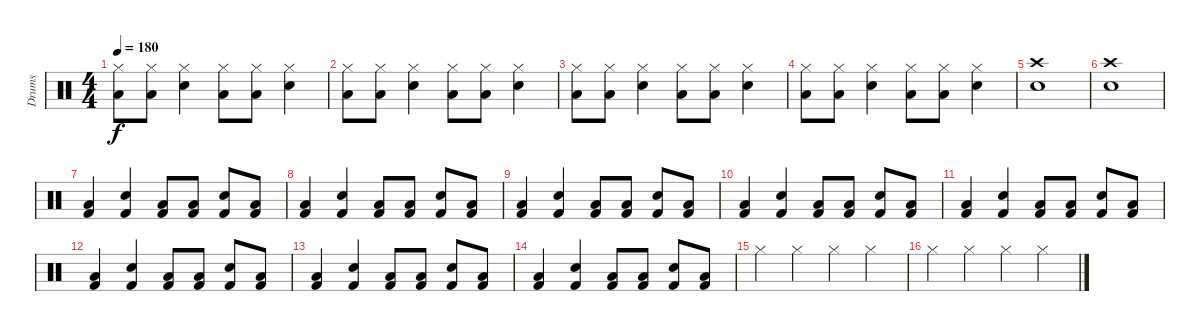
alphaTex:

\track ("Drums" "Drums") {instrument percussion}
\staff {score}
\articulation defaults
\ts (4 4)
\tempo 180
\clef neutral
\ks c
("Hi-Hat (closed)" "Low Tom (hit)").8{dy f} ("Hi-Hat (closed)" "Low Tom (hit)").8 ("Hi-Hat (closed)" "Electric Snare (hit)").4 ("Hi-Hat (closed)" "Low Tom (hit)").8 ("Hi-Hat (closed)" "Low Tom (hit)").8 ("Hi-Hat (closed)" "Electric Snare (hit)").4 |
("Hi-Hat (closed)" "Low Tom (hit)").8 ("Hi-Hat (closed)" "Low Tom (hit)").8 ("Hi-Hat (closed)" "Electric Snare (hit)").4 ("Hi-Hat (closed)" "Low Tom (hit)").8 ("Hi-Hat (closed)" "Low Tom (hit)").8 ("Hi-Hat (closed)" "Electric Snare (hit)").4 |
("Hi-Hat (closed)" "Low Tom (hit)").8 ("Hi-Hat (closed)" "Low Tom (hit)").8 ("Hi-Hat (closed)" "Electric Snare (hit)").4 ("Hi-Hat (closed)" "Low Tom (hit)").8 ("Hi-Hat (closed)" "Low Tom (hit)").8 ("Hi-Hat (closed)" "Electric Snare (hit)").4 |
("Hi-Hat (closed)" "Low Tom (hit)").8 ("Hi-Hat (closed)" "Low Tom (hit)").8 ("Hi-Hat (closed)" "Electric Snare (hit)").4 ("Hi-Hat (closed)" "Low Tom (hit)").8 ("Hi-Hat (closed)" "Low Tom (hit)").8 ("Hi-Hat (closed)" "Electric Snare (hit)").4 |
("Crash high (hit)" "Snare (hit) 2").1 |
("Crash high (hit)" "Snare (hit) 2").1 |
("Kick (hit) 2" "Low Tom (hit)").4 ("Kick (hit) 2" "Electric Snare (hit)").4 ("Kick (hit) 2" "Low Tom (hit)").8 ("Kick (hit) 2" "Low Tom (hit)").8 ("Kick (hit) 2" "Electric Snare (hit)").8 ("Kick (hit) 2" "Low Tom (hit)").8 |
("Kick (hit) 2" "Low Tom (hit)").4 ("Kick (hit) 2" "Electric Snare (hit)").4 ("Kick (hit) 2" "Low Tom (hit)").8 ("Kick (hit) 2" "Low Tom (hit)").8 ("Kick (hit) 2" "Electric Snare (hit)").8 ("Kick (hit) 2" "Low Tom (hit)").8 |
("Kick (hit) 2" "Low Tom (hit)").4 ("Kick (hit) 2" "Electric Snare (hit)").4 ("Kick (hit) 2" "Low Tom (hit)").8 ("Kick (hit) 2" "Low Tom (hit)").8 ("Kick (hit) 2" "Electric Snare (hit)").8 ("Kick (hit) 2" "Low Tom (hit)").8 |
("Kick (hit) 2" "Low Tom (hit)").4 ("Kick (hit) 2" "Electric Snare (hit)").4 ("Kick (hit) 2" "Low Tom (hit)").8 ("Kick (hit) 2" "Low Tom (hit)").8 ("Kick (hit) 2" "Electric Snare (hit)").8 ("Kick (hit) 2" "Low Tom (hit)").8 |
("Kick (hit) 2" "Low Tom (hit)").4 ("Kick (hit) 2" "Electric Snare (hit)").4 ("Kick (hit) 2" "Low Tom (hit)").8 ("Kick (hit) 2" "Low Tom (hit)").8 ("Kick (hit) 2" "Electric Snare (hit)").8 ("Kick (hit) 2" "Low Tom (hit)").8 |
("Kick (hit) 2" "Low Tom (hit)").4 ("Kick (hit) 2" "Electric Snare (hit)").4 ("Kick (hit) 2" "Low Tom (hit)").8 ("Kick (hit) 2" "Low Tom (hit)").8 ("Kick (hit) 2" "Electric Snare (hit)").8 ("Kick (hit) 2" "Low Tom (hit)").8 |
("Kick (hit) 2" "Low Tom (hit)").4 ("Kick (hit) 2" "Electric Snare (hit)").4 ("Kick (hit) 2" "Low Tom (hit)").8 ("Kick (hit) 2" "Low Tom (hit)").8 ("Kick (hit) 2" "Electric Snare (hit)").8 ("Kick (hit) 2" "Low Tom (hit)").8 |
("Kick (hit) 2" "Low Tom (hit)").4 ("Kick (hit) 2" "Electric Snare (hit)").4 ("Kick (hit) 2" "Low Tom (hit)").8 ("Kick (hit) 2" "Low Tom (hit)").8 ("Kick (hit) 2" "Electric Snare (hit)").8 ("Kick (hit) 2" "Low Tom (hit)").8 |
"Hi-Hat (closed)".4 "Hi-Hat (closed)".4 "Hi-Hat (closed)".4 "Hi-Hat (closed)".4 |
"Hi-Hat (closed)".4 "Hi-Hat (closed)".4 "Hi-Hat (closed)".4 "Hi-Hat (closed)".4
